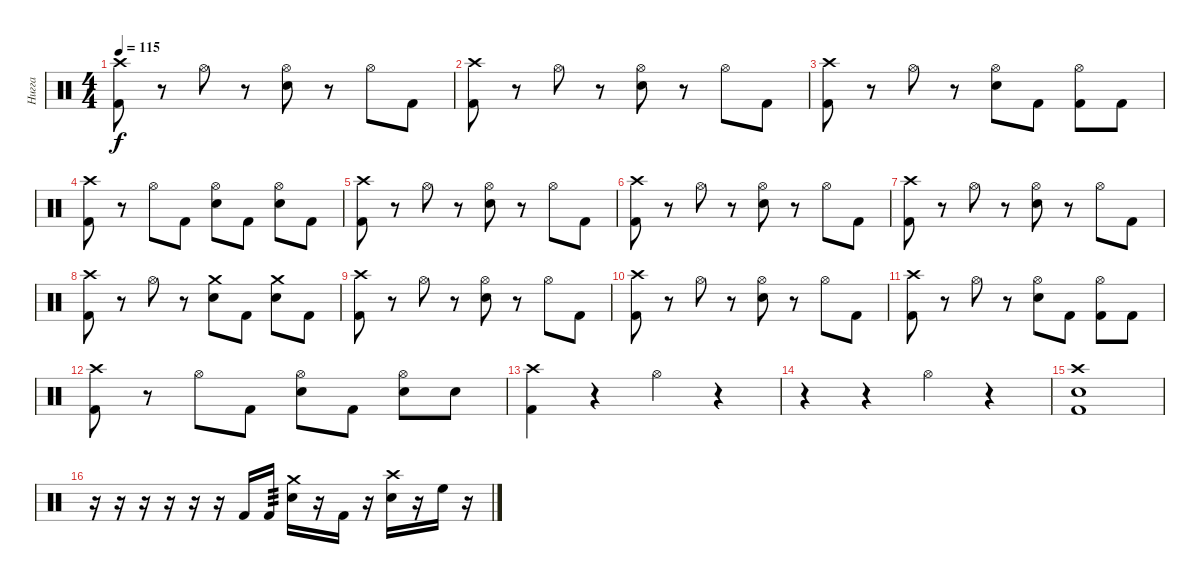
\track ("Нигга" "Нигга") {instrument percussion}
\staff
\articulation defaults
\ts (4 4)
\tempo 115
\clef neutral
\ks c
("Crash high (hit)" "Kick (hit) 2").8{dy f} r.8 "Hi-Hat (open)".8 r.8 ("Hi-Hat (open)" "Electric Snare (hit)").8 r.8 "Hi-Hat (open)".8 "Kick (hit) 2".8 |
("Crash high (hit)" "Kick (hit) 2").8 r.8 "Hi-Hat (open)".8 r.8 ("Hi-Hat (open)" "Electric Snare (hit)").8 r.8 "Hi-Hat (open)".8 "Kick (hit) 2".8 |
("Crash high (hit)" "Kick (hit) 2").8 r.8 "Hi-Hat (open)".8 r.8 ("Hi-Hat (open)" "Electric Snare (hit)").8 "Kick (hit) 2".8 ("Hi-Hat (open)" "Kick (hit) 2").8 "Kick (hit) 2".8 |
("Crash high (hit)" "Kick (hit) 2").8 r.8 "Hi-Hat (open)".8 "Kick (hit) 2".8 ("Hi-Hat (open)" "Electric Snare (hit)").8 "Kick (hit) 2".8 ("Hi-Hat (open)" "Electric Snare (hit)").8 "Kick (hit) 2".8 |
("Crash high (hit)" "Kick (hit) 2").8 r.8 "Hi-Hat (open)".8 r.8 ("Hi-Hat (open)" "Electric Snare (hit)").8 r.8 "Hi-Hat (open)".8 "Kick (hit) 2".8 |
("Crash high (hit)" "Kick (hit) 2").8 r.8 "Hi-Hat (open)".8 r.8 ("Hi-Hat (open)" "Electric Snare (hit)").8 r.8 "Hi-Hat (open)".8 "Kick (hit) 2".8 |
("Crash high (hit)" "Kick (hit) 2").8 r.8 "Hi-Hat (open)".8 r.8 ("Hi-Hat (open)" "Electric Snare (hit)").8 r.8 "Hi-Hat (open)".8 "Kick (hit) 2".8 |
("Crash high (hit)" "Kick (hit) 2").8 r.8 "Hi-Hat (open)".8 r.8 ("Crash medium (hit)" "Electric Snare (hit)").8 "Kick (hit) 2".8 ("Crash medium (hit)" "Electric Snare (hit)").8 "Kick (hit) 2".8 |
("Crash high (hit)" "Kick (hit) 2").8 r.8 "Hi-Hat (open)".8 r.8 ("Hi-Hat (open)" "Electric Snare (hit)").8 r.8 "Hi-Hat (open)".8 "Kick (hit) 2".8 |
("Crash high (hit)" "Kick (hit) 2").8 r.8 "Hi-Hat (open)".8 r.8 ("Hi-Hat (open)" "Electric Snare (hit)").8 r.8 "Hi-Hat (open)".8 "Kick (hit) 2".8 |
("Crash high (hit)" "Kick (hit) 2").8 r.8 "Hi-Hat (open)".8 r.8 ("Hi-Hat (open)" "Electric Snare (hit)").8 "Kick (hit) 2".8 ("Hi-Hat (open)" "Kick (hit) 2").8 "Kick (hit) 2".8 |
("Crash high (hit)" "Kick (hit) 2").8 r.8 "Hi-Hat (open)".8 "Kick (hit) 2".8 ("Hi-Hat (open)" "Electric Snare (hit)").8 "Kick (hit) 2".8 ("Hi-Hat (open)" "Snare (hit) 2").8 "Snare (hit) 2".8 |
("Crash high (hit)" "Kick (hit) 2").4 r.4 "Hi-Hat (open)".4 r.4 |
r.4 r.4 "Hi-Hat (open)".4 r.4 |
("Crash high (hit)" "Snare (hit) 2" "Kick (hit) 2").1 |
r.16 r.16 r.16 r.16 r.16 r.16 "Kick (hit) 2".16 "Kick (hit) 2".16{tp 3} ("Crash medium (hit)" "Snare (hit) 2").16 r.16 "Kick (hit) 2".16 r.16 ("Crash high (hit)" "Snare (hit) 2").16 r.16 "High Floor Tom (hit)".16 r.16
